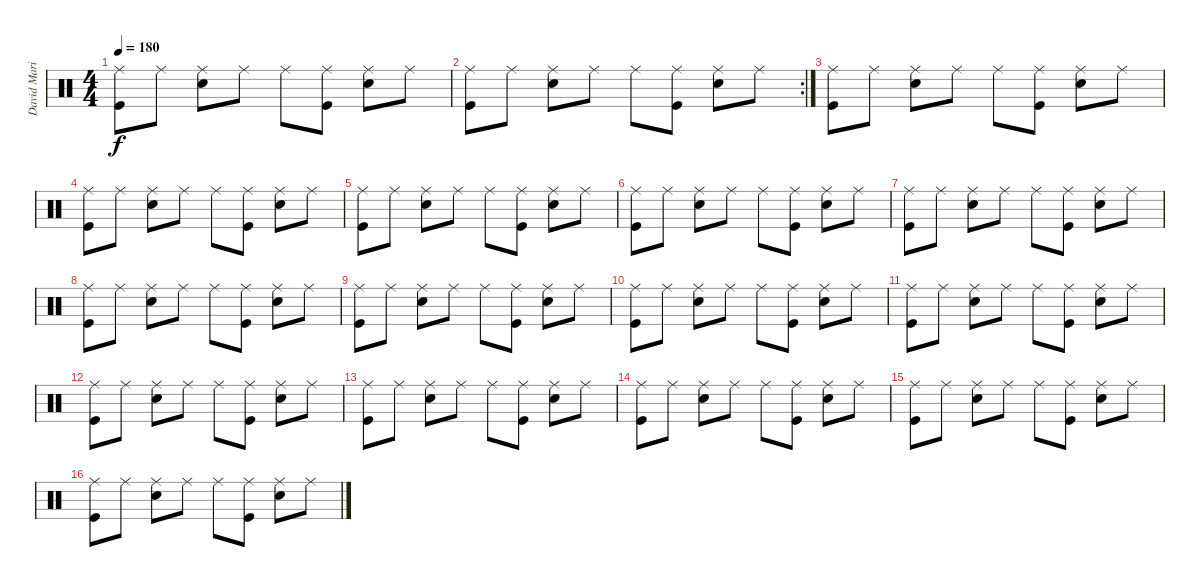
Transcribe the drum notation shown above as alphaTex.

\track ("David Marinero" "David Mari") {instrument percussion}
\staff {score}
\articulation defaults
\ts (4 4)
\tempo 180
\clef neutral
\ks c
("Ride (middle)" "Kick (hit)").8{dy f} "Ride (middle)".8 ("Ride (middle)" "Snare (hit) 2").8 "Ride (middle)".8 "Ride (middle)".8 ("Ride (middle)" "Kick (hit)").8 ("Ride (middle)" "Snare (hit) 2").8 "Ride (middle)".8 |
\rc 2
("Ride (middle)" "Kick (hit)").8 "Ride (middle)".8 ("Ride (middle)" "Snare (hit) 2").8 "Ride (middle)".8 "Ride (middle)".8 ("Ride (middle)" "Kick (hit)").8 ("Ride (middle)" "Snare (hit) 2").8 "Ride (middle)".8 |
("Ride (middle)" "Kick (hit)").8 "Ride (middle)".8 ("Ride (middle)" "Snare (hit) 2").8 "Ride (middle)".8 "Ride (middle)".8 ("Ride (middle)" "Kick (hit)").8 ("Ride (middle)" "Snare (hit) 2").8 "Ride (middle)".8 |
("Ride (middle)" "Kick (hit)").8 "Ride (middle)".8 ("Ride (middle)" "Snare (hit) 2").8 "Ride (middle)".8 "Ride (middle)".8 ("Ride (middle)" "Kick (hit)").8 ("Ride (middle)" "Snare (hit) 2").8 "Ride (middle)".8 |
("Ride (middle)" "Kick (hit)").8 "Ride (middle)".8 ("Ride (middle)" "Snare (hit) 2").8 "Ride (middle)".8 "Ride (middle)".8 ("Ride (middle)" "Kick (hit)").8 ("Ride (middle)" "Snare (hit) 2").8 "Ride (middle)".8 |
("Ride (middle)" "Kick (hit)").8 "Ride (middle)".8 ("Ride (middle)" "Snare (hit) 2").8 "Ride (middle)".8 "Ride (middle)".8 ("Ride (middle)" "Kick (hit)").8 ("Ride (middle)" "Snare (hit) 2").8 "Ride (middle)".8 |
("Ride (middle)" "Kick (hit)").8 "Ride (middle)".8 ("Ride (middle)" "Snare (hit) 2").8 "Ride (middle)".8 "Ride (middle)".8 ("Ride (middle)" "Kick (hit)").8 ("Ride (middle)" "Snare (hit) 2").8 "Ride (middle)".8 |
("Ride (middle)" "Kick (hit)").8 "Ride (middle)".8 ("Ride (middle)" "Snare (hit) 2").8 "Ride (middle)".8 "Ride (middle)".8 ("Ride (middle)" "Kick (hit)").8 ("Ride (middle)" "Snare (hit) 2").8 "Ride (middle)".8 |
("Ride (middle)" "Kick (hit)").8 "Ride (middle)".8 ("Ride (middle)" "Snare (hit) 2").8 "Ride (middle)".8 "Ride (middle)".8 ("Ride (middle)" "Kick (hit)").8 ("Ride (middle)" "Snare (hit) 2").8 "Ride (middle)".8 |
("Ride (middle)" "Kick (hit)").8 "Ride (middle)".8 ("Ride (middle)" "Snare (hit) 2").8 "Ride (middle)".8 "Ride (middle)".8 ("Ride (middle)" "Kick (hit)").8 ("Ride (middle)" "Snare (hit) 2").8 "Ride (middle)".8 |
("Ride (middle)" "Kick (hit)").8 "Ride (middle)".8 ("Ride (middle)" "Snare (hit) 2").8 "Ride (middle)".8 "Ride (middle)".8 ("Ride (middle)" "Kick (hit)").8 ("Ride (middle)" "Snare (hit) 2").8 "Ride (middle)".8 |
("Ride (middle)" "Kick (hit)").8 "Ride (middle)".8 ("Ride (middle)" "Snare (hit) 2").8 "Ride (middle)".8 "Ride (middle)".8 ("Ride (middle)" "Kick (hit)").8 ("Ride (middle)" "Snare (hit) 2").8 "Ride (middle)".8 |
("Ride (middle)" "Kick (hit)").8 "Ride (middle)".8 ("Ride (middle)" "Snare (hit) 2").8 "Ride (middle)".8 "Ride (middle)".8 ("Ride (middle)" "Kick (hit)").8 ("Ride (middle)" "Snare (hit) 2").8 "Ride (middle)".8 |
("Ride (middle)" "Kick (hit)").8 "Ride (middle)".8 ("Ride (middle)" "Snare (hit) 2").8 "Ride (middle)".8 "Ride (middle)".8 ("Ride (middle)" "Kick (hit)").8 ("Ride (middle)" "Snare (hit) 2").8 "Ride (middle)".8 |
("Ride (middle)" "Kick (hit)").8 "Ride (middle)".8 ("Ride (middle)" "Snare (hit) 2").8 "Ride (middle)".8 "Ride (middle)".8 ("Ride (middle)" "Kick (hit)").8 ("Ride (middle)" "Snare (hit) 2").8 "Ride (middle)".8 |
("Ride (middle)" "Kick (hit)").8 "Ride (middle)".8 ("Ride (middle)" "Snare (hit) 2").8 "Ride (middle)".8 "Ride (middle)".8 ("Ride (middle)" "Kick (hit)").8 ("Ride (middle)" "Snare (hit) 2").8 "Ride (middle)".8
